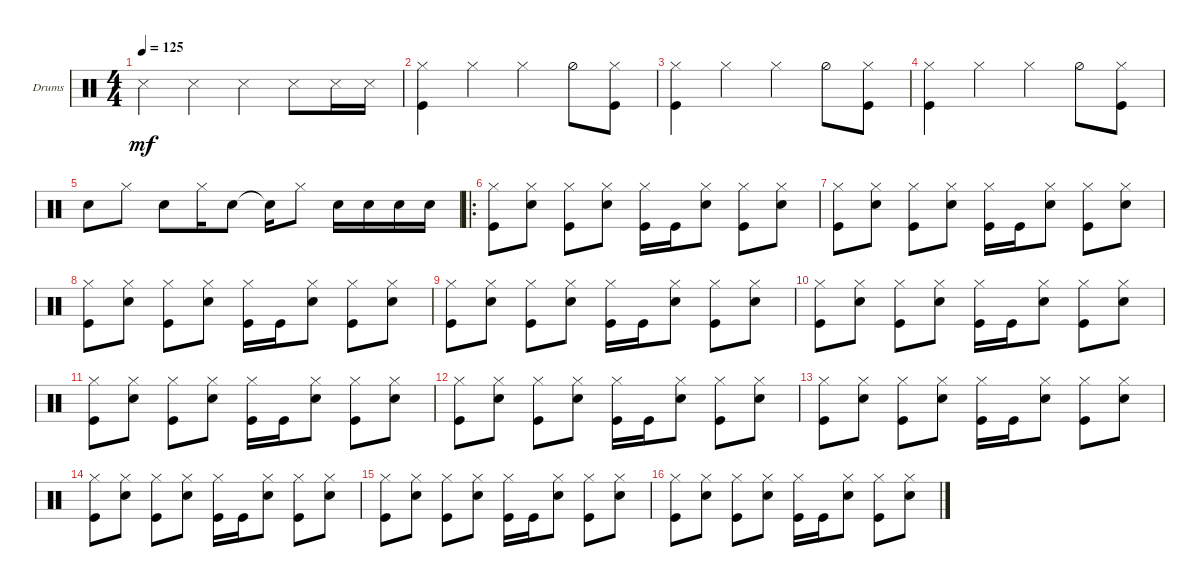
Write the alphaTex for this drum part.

\defaultSystemsLayout 4
\bracketExtendMode groupsimilarinstruments
\firstSystemTrackNameOrientation horizontal
\otherSystemsTrackNameOrientation horizontal
\track ("Drumkit" "Drums") {instrument percussion}
\staff {score}
\articulation defaults
\ts (4 4)
\tempo 125
\clef neutral
\ks c "Snare (side stick) 3".4{dy mf} "Snare (side stick) 3".4 "Snare (side stick) 3".4 "Snare (side stick) 3".8 "Snare (side stick) 3".16 "Snare (side stick) 3".16
|
("Hi-Hat (closed)" "Kick (hit)").4 "Hi-Hat (closed)".4 "Hi-Hat (closed)".4 "Hi-Hat (half)".8 ("Hi-Hat (closed)" "Kick (hit)").8 |
("Hi-Hat (closed)" "Kick (hit)").4 "Hi-Hat (closed)".4 "Hi-Hat (closed)".4 "Hi-Hat (half)".8 ("Hi-Hat (closed)" "Kick (hit)").8 |
("Hi-Hat (closed)" "Kick (hit)").4 "Hi-Hat (closed)".4 "Hi-Hat (closed)".4 "Hi-Hat (half)".8 ("Hi-Hat (closed)" "Kick (hit)").8 |
"Snare (hit) 2".8 "Hi-Hat (closed)".8 "Snare (hit) 2".8 "Hi-Hat (closed)".16 "Snare (hit) 2".8 "Snare (hit) 2"{t}.16 "Hi-Hat (closed)".8 "Snare (hit) 2".16 "Snare (hit) 2".16 "Snare (hit) 2".16 "Snare (hit) 2".16 |
\ro
("Hi-Hat (closed)" "Kick (hit)").8 ("Snare (hit) 2" "Hi-Hat (closed)").8 ("Hi-Hat (closed)" "Kick (hit)").8 ("Snare (hit) 2" "Hi-Hat (closed)").8 ("Hi-Hat (closed)" "Kick (hit)").16 "Kick (hit)".16 ("Snare (hit) 2" "Hi-Hat (closed)").8 ("Hi-Hat (closed)" "Kick (hit)").8 ("Snare (hit) 2" "Hi-Hat (closed)").8 |
("Hi-Hat (closed)" "Kick (hit)").8 ("Snare (hit) 2" "Hi-Hat (closed)").8 ("Hi-Hat (closed)" "Kick (hit)").8 ("Snare (hit) 2" "Hi-Hat (closed)").8 ("Hi-Hat (closed)" "Kick (hit)").16 "Kick (hit)".16 ("Snare (hit) 2" "Hi-Hat (closed)").8 ("Hi-Hat (closed)" "Kick (hit)").8 ("Snare (hit) 2" "Hi-Hat (closed)").8 |
("Hi-Hat (closed)" "Kick (hit)").8 ("Snare (hit) 2" "Hi-Hat (closed)").8 ("Hi-Hat (closed)" "Kick (hit)").8 ("Snare (hit) 2" "Hi-Hat (closed)").8 ("Hi-Hat (closed)" "Kick (hit)").16 "Kick (hit)".16 ("Snare (hit) 2" "Hi-Hat (closed)").8 ("Hi-Hat (closed)" "Kick (hit)").8 ("Snare (hit) 2" "Hi-Hat (closed)").8 |
("Hi-Hat (closed)" "Kick (hit)").8 ("Snare (hit) 2" "Hi-Hat (closed)").8 ("Hi-Hat (closed)" "Kick (hit)").8 ("Snare (hit) 2" "Hi-Hat (closed)").8 ("Hi-Hat (closed)" "Kick (hit)").16 "Kick (hit)".16 ("Snare (hit) 2" "Hi-Hat (closed)").8 ("Hi-Hat (closed)" "Kick (hit)").8 ("Snare (hit) 2" "Hi-Hat (closed)").8 |
("Hi-Hat (closed)" "Kick (hit)").8 ("Snare (hit) 2" "Hi-Hat (closed)").8 ("Hi-Hat (closed)" "Kick (hit)").8 ("Snare (hit) 2" "Hi-Hat (closed)").8 ("Hi-Hat (closed)" "Kick (hit)").16 "Kick (hit)".16 ("Snare (hit) 2" "Hi-Hat (closed)").8 ("Hi-Hat (closed)" "Kick (hit)").8 ("Snare (hit) 2" "Hi-Hat (closed)").8 |
("Hi-Hat (closed)" "Kick (hit)").8 ("Snare (hit) 2" "Hi-Hat (closed)").8 ("Hi-Hat (closed)" "Kick (hit)").8 ("Snare (hit) 2" "Hi-Hat (closed)").8 ("Hi-Hat (closed)" "Kick (hit)").16 "Kick (hit)".16 ("Snare (hit) 2" "Hi-Hat (closed)").8 ("Hi-Hat (closed)" "Kick (hit)").8 ("Snare (hit) 2" "Hi-Hat (closed)").8 |
("Hi-Hat (closed)" "Kick (hit)").8 ("Snare (hit) 2" "Hi-Hat (closed)").8 ("Hi-Hat (closed)" "Kick (hit)").8 ("Snare (hit) 2" "Hi-Hat (closed)").8 ("Hi-Hat (closed)" "Kick (hit)").16 "Kick (hit)".16 ("Snare (hit) 2" "Hi-Hat (closed)").8 ("Hi-Hat (closed)" "Kick (hit)").8 ("Snare (hit) 2" "Hi-Hat (closed)").8 |
("Hi-Hat (closed)" "Kick (hit)").8 ("Snare (hit) 2" "Hi-Hat (closed)").8 ("Hi-Hat (closed)" "Kick (hit)").8 ("Snare (hit) 2" "Hi-Hat (closed)").8 ("Hi-Hat (closed)" "Kick (hit)").16 "Kick (hit)".16 ("Snare (hit) 2" "Hi-Hat (closed)").8 ("Hi-Hat (closed)" "Kick (hit)").8 ("Snare (hit) 2" "Hi-Hat (closed)").8 |
("Hi-Hat (closed)" "Kick (hit)").8 ("Snare (hit) 2" "Hi-Hat (closed)").8 ("Hi-Hat (closed)" "Kick (hit)").8 ("Snare (hit) 2" "Hi-Hat (closed)").8 ("Hi-Hat (closed)" "Kick (hit)").16 "Kick (hit)".16 ("Snare (hit) 2" "Hi-Hat (closed)").8 ("Hi-Hat (closed)" "Kick (hit)").8 ("Snare (hit) 2" "Hi-Hat (closed)").8 |
("Hi-Hat (closed)" "Kick (hit)").8 ("Snare (hit) 2" "Hi-Hat (closed)").8 ("Hi-Hat (closed)" "Kick (hit)").8 ("Snare (hit) 2" "Hi-Hat (closed)").8 ("Hi-Hat (closed)" "Kick (hit)").16 "Kick (hit)".16 ("Snare (hit) 2" "Hi-Hat (closed)").8 ("Hi-Hat (closed)" "Kick (hit)").8 ("Snare (hit) 2" "Hi-Hat (closed)").8 |
("Hi-Hat (closed)" "Kick (hit)").8 ("Snare (hit) 2" "Hi-Hat (closed)").8 ("Hi-Hat (closed)" "Kick (hit)").8 ("Snare (hit) 2" "Hi-Hat (closed)").8 ("Hi-Hat (closed)" "Kick (hit)").16 "Kick (hit)".16 ("Snare (hit) 2" "Hi-Hat (closed)").8 ("Hi-Hat (closed)" "Kick (hit)").8 ("Snare (hit) 2" "Hi-Hat (closed)").8
